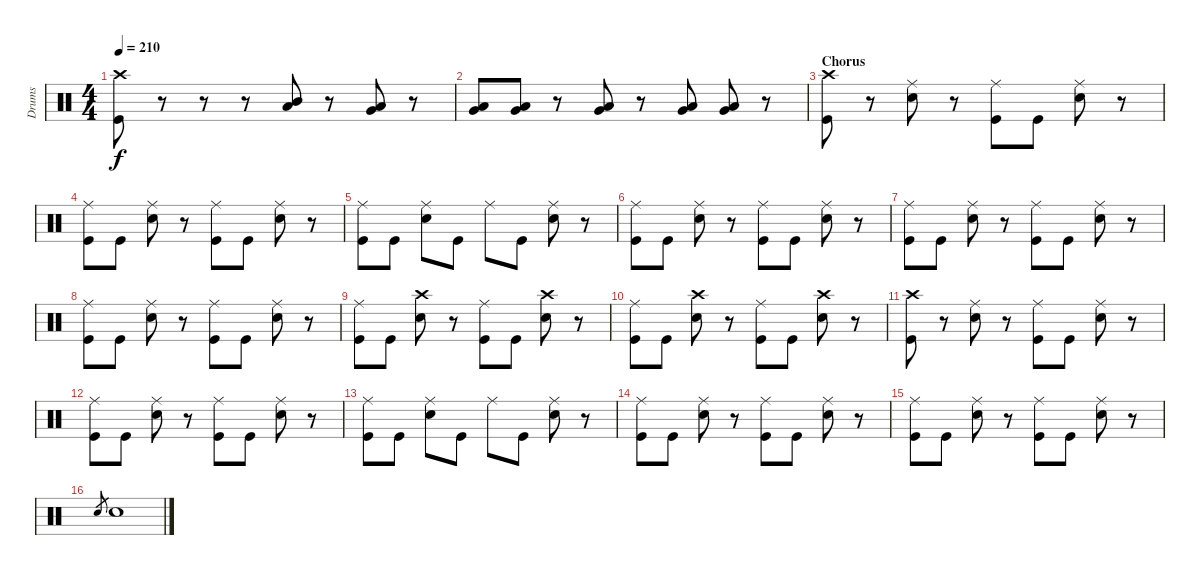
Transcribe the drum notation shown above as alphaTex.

\track ("Drums" "Drums") {instrument percussion}
\staff {score}
\articulation defaults
\ts (4 4)
\tempo 210
\clef neutral
\ks c
("Crash high (hit)" "Kick (hit)").8{dy f} r.8 r.8 r.8 ("Mid Tom (hit)" "Low Tom (hit)").8 r.8 ("Low Tom (hit)" "Very Low Tom (hit)").8 r.8 |
("Low Tom (hit)" "Very Low Tom (hit)").8 ("Low Tom (hit)" "Very Low Tom (hit)").8 r.8 ("Very Low Tom (hit)" "Low Floor Tom (hit)").8 r.8 ("Very Low Tom (hit)" "Low Floor Tom (hit)").8 ("Very Low Tom (hit)" "Low Floor Tom (hit)").8 r.8 |
\section ("" "Chorus")
("Crash high (hit)" "Kick (hit)").8 r.8 ("Ride (middle)" "Snare (hit) 2").8 r.8 ("Ride (middle)" "Kick (hit)").8 "Kick (hit)".8 ("Ride (middle)" "Snare (hit) 2").8 r.8 |
("Ride (middle)" "Kick (hit)").8 "Kick (hit)".8 ("Ride (middle)" "Snare (hit) 2").8 r.8 ("Ride (middle)" "Kick (hit)").8 "Kick (hit)".8 ("Ride (middle)" "Snare (hit) 2").8 r.8 |
("Ride (middle)" "Kick (hit)").8 "Kick (hit)".8 ("Ride (middle)" "Snare (hit) 2").8 "Kick (hit)".8 "Ride (middle)".8 "Kick (hit)".8 ("Ride (middle)" "Snare (hit) 2").8 r.8 |
("Ride (middle)" "Kick (hit)").8 "Kick (hit)".8 ("Ride (middle)" "Snare (hit) 2").8 r.8 ("Ride (middle)" "Kick (hit)").8 "Kick (hit)".8 ("Ride (middle)" "Snare (hit) 2").8 r.8 |
("Ride (middle)" "Kick (hit)").8 "Kick (hit)".8 ("Ride (middle)" "Snare (hit) 2").8 r.8 ("Ride (middle)" "Kick (hit)").8 "Kick (hit)".8 ("Ride (middle)" "Snare (hit) 2").8 r.8 |
("Ride (middle)" "Kick (hit)").8 "Kick (hit)".8 ("Ride (middle)" "Snare (hit) 2").8 r.8 ("Ride (middle)" "Kick (hit)").8 "Kick (hit)".8 ("Ride (middle)" "Snare (hit) 2").8 r.8 |
("Ride (middle)" "Kick (hit)").8 "Kick (hit)".8 ("Crash high (hit)" "Snare (hit) 2").8 r.8 ("Ride (middle)" "Kick (hit)").8 "Kick (hit)".8 ("Crash high (hit)" "Snare (hit) 2").8 r.8 |
("Ride (middle)" "Kick (hit)").8 "Kick (hit)".8 ("Crash high (hit)" "Snare (hit) 2").8 r.8 ("Ride (middle)" "Kick (hit)").8 "Kick (hit)".8 ("Crash high (hit)" "Snare (hit) 2").8 r.8 |
("Crash high (hit)" "Kick (hit)").8 r.8 ("Ride (middle)" "Snare (hit) 2").8 r.8 ("Ride (middle)" "Kick (hit)").8 "Kick (hit)".8 ("Ride (middle)" "Snare (hit) 2").8 r.8 |
("Ride (middle)" "Kick (hit)").8 "Kick (hit)".8 ("Ride (middle)" "Snare (hit) 2").8 r.8 ("Ride (middle)" "Kick (hit)").8 "Kick (hit)".8 ("Ride (middle)" "Snare (hit) 2").8 r.8 |
("Ride (middle)" "Kick (hit)").8 "Kick (hit)".8 ("Ride (middle)" "Snare (hit) 2").8 "Kick (hit)".8 "Ride (middle)".8 "Kick (hit)".8 ("Ride (middle)" "Snare (hit) 2").8 r.8 |
("Ride (middle)" "Kick (hit)").8 "Kick (hit)".8 ("Ride (middle)" "Snare (hit) 2").8 r.8 ("Ride (middle)" "Kick (hit)").8 "Kick (hit)".8 ("Ride (middle)" "Snare (hit) 2").8 r.8 |
("Ride (middle)" "Kick (hit)").8 "Kick (hit)".8 ("Ride (middle)" "Snare (hit) 2").8 r.8 ("Ride (middle)" "Kick (hit)").8 "Kick (hit)".8 ("Ride (middle)" "Snare (hit) 2").8 r.8 |
"Snare (hit) 2".8{gr} "Snare (hit) 2".1
